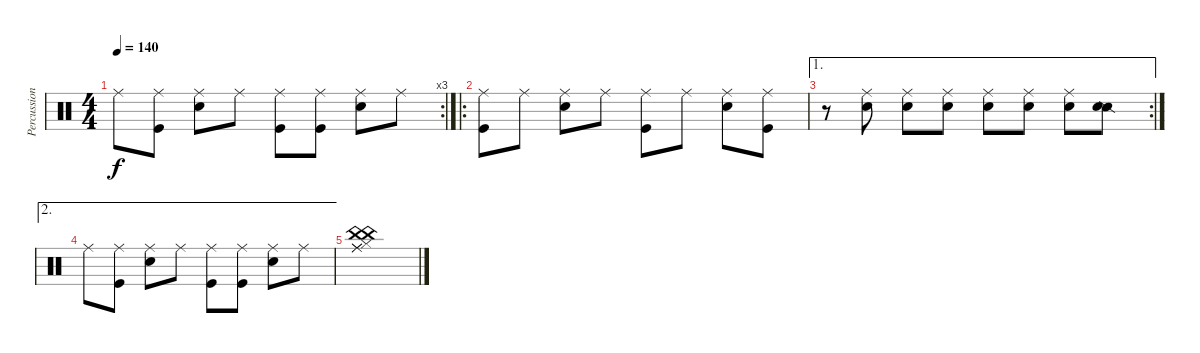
\track ("Percussions" "Percussion") {instrument percussion}
\staff {score}
\articulation defaults
\rc 3
\ts (4 4)
\tempo 140
\clef neutral
\ks c "Ride (middle)".8{dy f}
("Ride (middle)" "Kick (hit)").8 ("Ride (middle)" "Snare (hit) 2").8 "Ride (middle)".8 ("Ride (middle)" "Kick (hit)").8 ("Ride (middle)" "Kick (hit)").8 ("Ride (middle)" "Snare (hit) 2").8 "Ride (middle)".8 |
\ro
("Ride (middle)" "Kick (hit)").8 "Ride (middle)".8 ("Ride (middle)" "Snare (hit) 2").8 "Ride (middle)".8 ("Ride (middle)" "Kick (hit)").8 "Ride (middle)".8 ("Ride (middle)" "Snare (hit) 2").8 ("Ride (middle)" "Kick (hit)").8 |
\ae 1
\rc 2
r.8 ("Ride (middle)" "Snare (hit) 2").8 ("Ride (middle)" "Snare (hit) 2").8 ("Ride (middle)" "Snare (hit) 2").8 ("Ride (middle)" "Snare (hit) 2").8 ("Ride (middle)" "Snare (hit) 2").8 ("Ride (middle)" "Snare (hit) 2").8 ("Snare (side stick) 2" "Snare (hit) 2").8 |
\ae 2 "Ride (middle)".8
("Ride (middle)" "Kick (hit)").8 ("Ride (middle)" "Snare (hit) 2").8 "Ride (middle)".8 ("Ride (middle)" "Kick (hit)").8 ("Ride (middle)" "Kick (hit)").8 ("Ride (middle)" "Snare (hit) 2").8 "Ride (middle)".8 |
("Ride (middle)" "China (hit)" "Hi-Hat (closed)" "Ride (middle)" "China (hit)").1
